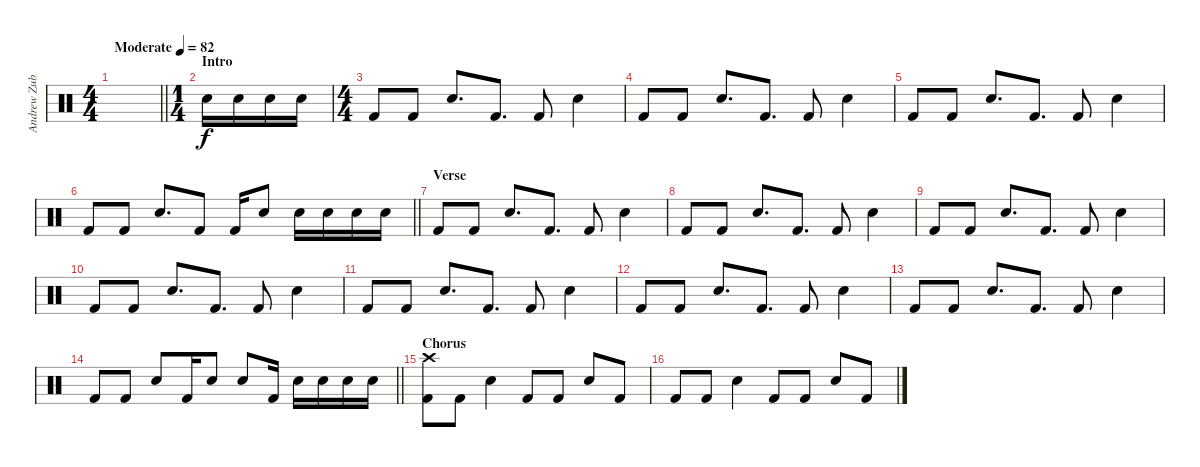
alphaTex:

\track ("Andrew Zubiszewski (Drums)" "Andrew Zub") {instrument percussion}
\staff {score}
\articulation defaults
\ts (4 4)
\tempo (82 "Moderate")
\clef neutral
\barLineRight lightlight
\ks c
|
\ts (1 4)
\section ("" "Intro")
"Electric Snare (hit)".16 "Electric Snare (hit)".16 "Electric Snare (hit)".16 "Electric Snare (hit)".16 |
\ts (4 4)
"Kick (hit) 2".8 "Kick (hit) 2".8 "Electric Snare (hit)".8{d} "Kick (hit) 2".8{d} "Kick (hit) 2".8 "Electric Snare (hit)".4 |
"Kick (hit) 2".8 "Kick (hit) 2".8 "Electric Snare (hit)".8{d} "Kick (hit) 2".8{d} "Kick (hit) 2".8 "Electric Snare (hit)".4 |
"Kick (hit) 2".8 "Kick (hit) 2".8 "Electric Snare (hit)".8{d} "Kick (hit) 2".8{d} "Kick (hit) 2".8 "Electric Snare (hit)".4 |
\barLineRight lightlight "Kick (hit) 2".8 "Kick (hit) 2".8 "Electric Snare (hit)".8{d} "Kick (hit) 2".8 "Kick (hit) 2".16 "Electric Snare (hit)".8 "Electric Snare (hit)".16 "Electric Snare (hit)".16 "Electric Snare (hit)".16 "Electric Snare (hit)".16
|
\section ("" "Verse")
"Kick (hit) 2".8 "Kick (hit) 2".8 "Electric Snare (hit)".8{d} "Kick (hit) 2".8{d} "Kick (hit) 2".8 "Electric Snare (hit)".4 |
"Kick (hit) 2".8 "Kick (hit) 2".8 "Electric Snare (hit)".8{d} "Kick (hit) 2".8{d} "Kick (hit) 2".8 "Electric Snare (hit)".4 |
"Kick (hit) 2".8 "Kick (hit) 2".8 "Electric Snare (hit)".8{d} "Kick (hit) 2".8{d} "Kick (hit) 2".8 "Electric Snare (hit)".4 |
"Kick (hit) 2".8 "Kick (hit) 2".8 "Electric Snare (hit)".8{d} "Kick (hit) 2".8{d} "Kick (hit) 2".8 "Electric Snare (hit)".4 |
"Kick (hit) 2".8 "Kick (hit) 2".8 "Electric Snare (hit)".8{d} "Kick (hit) 2".8{d} "Kick (hit) 2".8 "Electric Snare (hit)".4 |
"Kick (hit) 2".8 "Kick (hit) 2".8 "Electric Snare (hit)".8{d} "Kick (hit) 2".8{d} "Kick (hit) 2".8 "Electric Snare (hit)".4 |
"Kick (hit) 2".8 "Kick (hit) 2".8 "Electric Snare (hit)".8{d} "Kick (hit) 2".8{d} "Kick (hit) 2".8 "Electric Snare (hit)".4 |
\barLineRight lightlight "Kick (hit) 2".8 "Kick (hit) 2".8 "Electric Snare (hit)".8 "Kick (hit) 2".16 "Electric Snare (hit)".8 "Electric Snare (hit)".8 "Kick (hit) 2".16 "Electric Snare (hit)".16 "Electric Snare (hit)".16 "Electric Snare (hit)".16 "Electric Snare (hit)".16
|
\section ("" "Chorus")
("Crash high (hit)" "Kick (hit) 2").8 "Kick (hit) 2".8 "Electric Snare (hit)".4 "Kick (hit) 2".8 "Kick (hit) 2".8 "Electric Snare (hit)".8 "Kick (hit) 2".8 |
"Kick (hit) 2".8 "Kick (hit) 2".8 "Electric Snare (hit)".4 "Kick (hit) 2".8 "Kick (hit) 2".8 "Electric Snare (hit)".8 "Kick (hit) 2".8
